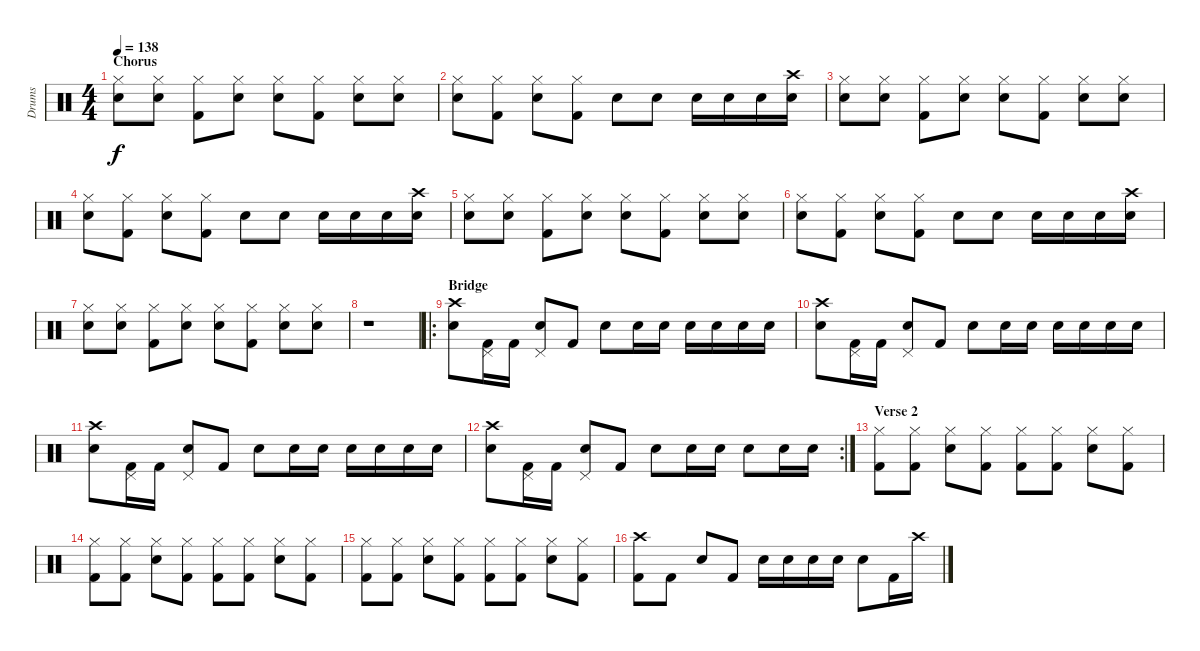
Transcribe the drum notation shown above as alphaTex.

\track ("Drums" "Drums") {instrument percussion}
\staff {score}
\articulation defaults
\ts (4 4)
\section ("" "Chorus")
\tempo 138
\clef neutral
\ks c
("Hi-Hat (closed)" "Electric Snare (hit)").8{dy f} ("Hi-Hat (closed)" "Electric Snare (hit)").8 ("Hi-Hat (closed)" "Kick (hit) 2").8 ("Hi-Hat (closed)" "Electric Snare (hit)").8 ("Hi-Hat (closed)" "Electric Snare (hit)").8 ("Hi-Hat (closed)" "Kick (hit) 2").8 ("Hi-Hat (closed)" "Electric Snare (hit)").8 ("Hi-Hat (closed)" "Electric Snare (hit)").8 |
("Hi-Hat (closed)" "Electric Snare (hit)").8 ("Hi-Hat (closed)" "Kick (hit) 2").8 ("Hi-Hat (closed)" "Electric Snare (hit)").8 ("Hi-Hat (closed)" "Kick (hit) 2").8 "Electric Snare (hit)".8 "Electric Snare (hit)".8 "Electric Snare (hit)".16 "Electric Snare (hit)".16 "Electric Snare (hit)".16 ("Crash high (hit)" "Electric Snare (hit)").16 |
("Hi-Hat (closed)" "Electric Snare (hit)").8 ("Hi-Hat (closed)" "Electric Snare (hit)").8 ("Hi-Hat (closed)" "Kick (hit) 2").8 ("Hi-Hat (closed)" "Electric Snare (hit)").8 ("Hi-Hat (closed)" "Electric Snare (hit)").8 ("Hi-Hat (closed)" "Kick (hit) 2").8 ("Hi-Hat (closed)" "Electric Snare (hit)").8 ("Hi-Hat (closed)" "Electric Snare (hit)").8 |
("Hi-Hat (closed)" "Electric Snare (hit)").8 ("Hi-Hat (closed)" "Kick (hit) 2").8 ("Hi-Hat (closed)" "Electric Snare (hit)").8 ("Hi-Hat (closed)" "Kick (hit) 2").8 "Electric Snare (hit)".8 "Electric Snare (hit)".8 "Electric Snare (hit)".16 "Electric Snare (hit)".16 "Electric Snare (hit)".16 ("Crash high (hit)" "Electric Snare (hit)").16 |
("Hi-Hat (closed)" "Electric Snare (hit)").8 ("Hi-Hat (closed)" "Electric Snare (hit)").8 ("Hi-Hat (closed)" "Kick (hit) 2").8 ("Hi-Hat (closed)" "Electric Snare (hit)").8 ("Hi-Hat (closed)" "Electric Snare (hit)").8 ("Hi-Hat (closed)" "Kick (hit) 2").8 ("Hi-Hat (closed)" "Electric Snare (hit)").8 ("Hi-Hat (closed)" "Electric Snare (hit)").8 |
("Hi-Hat (closed)" "Electric Snare (hit)").8 ("Hi-Hat (closed)" "Kick (hit) 2").8 ("Hi-Hat (closed)" "Electric Snare (hit)").8 ("Hi-Hat (closed)" "Kick (hit) 2").8 "Electric Snare (hit)".8 "Electric Snare (hit)".8 "Electric Snare (hit)".16 "Electric Snare (hit)".16 "Electric Snare (hit)".16 ("Crash high (hit)" "Electric Snare (hit)").16 |
("Hi-Hat (closed)" "Electric Snare (hit)").8 ("Hi-Hat (closed)" "Electric Snare (hit)").8 ("Hi-Hat (closed)" "Kick (hit) 2").8 ("Hi-Hat (closed)" "Electric Snare (hit)").8 ("Hi-Hat (closed)" "Electric Snare (hit)").8 ("Hi-Hat (closed)" "Kick (hit) 2").8 ("Hi-Hat (closed)" "Electric Snare (hit)").8 ("Hi-Hat (closed)" "Electric Snare (hit)").8 |
r.1 |
\ro
\section ("" "Bridge")
("Crash high (hit)" "Electric Snare (hit)").8 ("Pedal Hi-Hat (hit)" "Kick (hit) 2").16 "Kick (hit) 2".16 ("Pedal Hi-Hat (hit)" "Electric Snare (hit)").8 "Kick (hit) 2".8 "Electric Snare (hit)".8 "Electric Snare (hit)".16 "Electric Snare (hit)".16 "Electric Snare (hit)".16 "Electric Snare (hit)".16 "Electric Snare (hit)".16 "Electric Snare (hit)".16 |
("Crash high (hit)" "Electric Snare (hit)").8 ("Pedal Hi-Hat (hit)" "Kick (hit) 2").16 "Kick (hit) 2".16 ("Pedal Hi-Hat (hit)" "Electric Snare (hit)").8 "Kick (hit) 2".8 "Electric Snare (hit)".8 "Electric Snare (hit)".16 "Electric Snare (hit)".16 "Electric Snare (hit)".16 "Electric Snare (hit)".16 "Electric Snare (hit)".16 "Electric Snare (hit)".16 |
("Crash high (hit)" "Electric Snare (hit)").8 ("Pedal Hi-Hat (hit)" "Kick (hit) 2").16 "Kick (hit) 2".16 ("Pedal Hi-Hat (hit)" "Electric Snare (hit)").8 "Kick (hit) 2".8 "Electric Snare (hit)".8 "Electric Snare (hit)".16 "Electric Snare (hit)".16 "Electric Snare (hit)".16 "Electric Snare (hit)".16 "Electric Snare (hit)".16 "Electric Snare (hit)".16 |
\rc 2
("Crash high (hit)" "Electric Snare (hit)").8 ("Pedal Hi-Hat (hit)" "Kick (hit) 2").16 "Kick (hit) 2".16 ("Pedal Hi-Hat (hit)" "Electric Snare (hit)").8 "Kick (hit) 2".8 "Electric Snare (hit)".8 "Electric Snare (hit)".16 "Electric Snare (hit)".16 "Electric Snare (hit)".8 "Electric Snare (hit)".16 "Electric Snare (hit)".16 |
\section ("" "Verse 2")
("Hi-Hat (closed)" "Kick (hit) 2").8 ("Hi-Hat (closed)" "Kick (hit) 2").8 ("Hi-Hat (closed)" "Electric Snare (hit)").8 ("Hi-Hat (closed)" "Kick (hit) 2").8 ("Hi-Hat (closed)" "Kick (hit) 2").8 ("Hi-Hat (closed)" "Kick (hit) 2").8 ("Hi-Hat (closed)" "Electric Snare (hit)").8 ("Hi-Hat (closed)" "Kick (hit) 2").8 |
("Hi-Hat (closed)" "Kick (hit) 2").8 ("Hi-Hat (closed)" "Kick (hit) 2").8 ("Hi-Hat (closed)" "Electric Snare (hit)").8 ("Hi-Hat (closed)" "Kick (hit) 2").8 ("Hi-Hat (closed)" "Kick (hit) 2").8 ("Hi-Hat (closed)" "Kick (hit) 2").8 ("Hi-Hat (closed)" "Electric Snare (hit)").8 ("Hi-Hat (closed)" "Kick (hit) 2").8 |
("Hi-Hat (closed)" "Kick (hit) 2").8 ("Hi-Hat (closed)" "Kick (hit) 2").8 ("Hi-Hat (closed)" "Electric Snare (hit)").8 ("Hi-Hat (closed)" "Kick (hit) 2").8 ("Hi-Hat (closed)" "Kick (hit) 2").8 ("Hi-Hat (closed)" "Kick (hit) 2").8 ("Hi-Hat (closed)" "Electric Snare (hit)").8 ("Hi-Hat (closed)" "Kick (hit) 2").8 |
("Crash high (hit)" "Kick (hit) 2").8 "Kick (hit) 2".8 "Electric Snare (hit)".8 "Kick (hit) 2".8 "Electric Snare (hit)".16 "Electric Snare (hit)".16 "Electric Snare (hit)".16 "Electric Snare (hit)".16 "Electric Snare (hit)".8 "Kick (hit) 2".16 "Crash high (hit)".16
